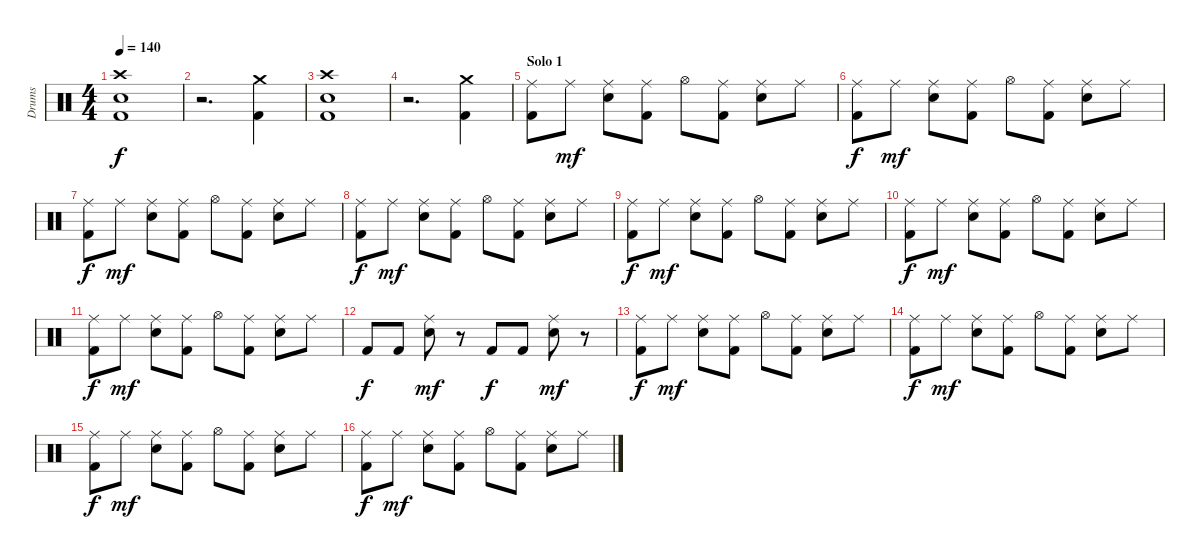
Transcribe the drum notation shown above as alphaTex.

\track ("Drums" "Drums") {instrument percussion}
\staff {score}
\articulation defaults
\ts (4 4)
\tempo 140
\clef neutral
\ks c
("Crash high (hit)" "Electric Snare (hit)" "Kick (hit) 2").1{dy f} |
r.2{d} ("Crash medium (hit)" "Kick (hit) 2").4 |
("Crash high (hit)" "Electric Snare (hit)" "Kick (hit) 2").1 |
r.2{d} ("Crash medium (hit)" "Kick (hit) 2").4 |
\section ("" "Solo 1")
("Ride (middle)" "Kick (hit) 2").8 "Ride (middle)".8{dy mf} ("Ride (middle)" "Electric Snare (hit)").8 ("Ride (middle)" "Kick (hit) 2").8 "Hi-Hat (open)".8 ("Ride (middle)" "Kick (hit) 2").8 ("Ride (middle)" "Electric Snare (hit)").8 "Ride (middle)".8 |
("Ride (middle)" "Kick (hit) 2").8{dy f} "Ride (middle)".8{dy mf} ("Ride (middle)" "Electric Snare (hit)").8 ("Ride (middle)" "Kick (hit) 2").8 "Hi-Hat (open)".8 ("Ride (middle)" "Kick (hit) 2").8 ("Ride (middle)" "Electric Snare (hit)").8 "Ride (middle)".8 |
("Ride (middle)" "Kick (hit) 2").8{dy f} "Ride (middle)".8{dy mf} ("Ride (middle)" "Electric Snare (hit)").8 ("Ride (middle)" "Kick (hit) 2").8 "Hi-Hat (open)".8 ("Ride (middle)" "Kick (hit) 2").8 ("Ride (middle)" "Electric Snare (hit)").8 "Ride (middle)".8 |
("Ride (middle)" "Kick (hit) 2").8{dy f} "Ride (middle)".8{dy mf} ("Ride (middle)" "Electric Snare (hit)").8 ("Ride (middle)" "Kick (hit) 2").8 "Hi-Hat (open)".8 ("Ride (middle)" "Kick (hit) 2").8 ("Ride (middle)" "Electric Snare (hit)").8 "Ride (middle)".8 |
("Ride (middle)" "Kick (hit) 2").8{dy f} "Ride (middle)".8{dy mf} ("Ride (middle)" "Electric Snare (hit)").8 ("Ride (middle)" "Kick (hit) 2").8 "Hi-Hat (open)".8 ("Ride (middle)" "Kick (hit) 2").8 ("Ride (middle)" "Electric Snare (hit)").8 "Ride (middle)".8 |
("Ride (middle)" "Kick (hit) 2").8{dy f} "Ride (middle)".8{dy mf} ("Ride (middle)" "Electric Snare (hit)").8 ("Ride (middle)" "Kick (hit) 2").8 "Hi-Hat (open)".8 ("Ride (middle)" "Kick (hit) 2").8 ("Ride (middle)" "Electric Snare (hit)").8 "Ride (middle)".8 |
("Ride (middle)" "Kick (hit) 2").8{dy f} "Ride (middle)".8{dy mf} ("Ride (middle)" "Electric Snare (hit)").8 ("Ride (middle)" "Kick (hit) 2").8 "Hi-Hat (open)".8 ("Ride (middle)" "Kick (hit) 2").8 ("Ride (middle)" "Electric Snare (hit)").8 "Ride (middle)".8 |
"Kick (hit) 2".8{dy f} "Kick (hit) 2".8 ("Ride (middle)" "Electric Snare (hit)").8{dy mf} r.8 "Kick (hit) 2".8{dy f} "Kick (hit) 2".8 ("Ride (middle)" "Electric Snare (hit)").8{dy mf} r.8 |
("Ride (middle)" "Kick (hit) 2").8{dy f} "Ride (middle)".8{dy mf} ("Ride (middle)" "Electric Snare (hit)").8 ("Ride (middle)" "Kick (hit) 2").8 "Hi-Hat (open)".8 ("Ride (middle)" "Kick (hit) 2").8 ("Ride (middle)" "Electric Snare (hit)").8 "Ride (middle)".8 |
("Ride (middle)" "Kick (hit) 2").8{dy f} "Ride (middle)".8{dy mf} ("Ride (middle)" "Electric Snare (hit)").8 ("Ride (middle)" "Kick (hit) 2").8 "Hi-Hat (open)".8 ("Ride (middle)" "Kick (hit) 2").8 ("Ride (middle)" "Electric Snare (hit)").8 "Ride (middle)".8 |
("Ride (middle)" "Kick (hit) 2").8{dy f} "Ride (middle)".8{dy mf} ("Ride (middle)" "Electric Snare (hit)").8 ("Ride (middle)" "Kick (hit) 2").8 "Hi-Hat (open)".8 ("Ride (middle)" "Kick (hit) 2").8 ("Ride (middle)" "Electric Snare (hit)").8 "Ride (middle)".8 |
("Ride (middle)" "Kick (hit) 2").8{dy f} "Ride (middle)".8{dy mf} ("Ride (middle)" "Electric Snare (hit)").8 ("Ride (middle)" "Kick (hit) 2").8 "Hi-Hat (open)".8 ("Ride (middle)" "Kick (hit) 2").8 ("Ride (middle)" "Electric Snare (hit)").8 "Ride (middle)".8
